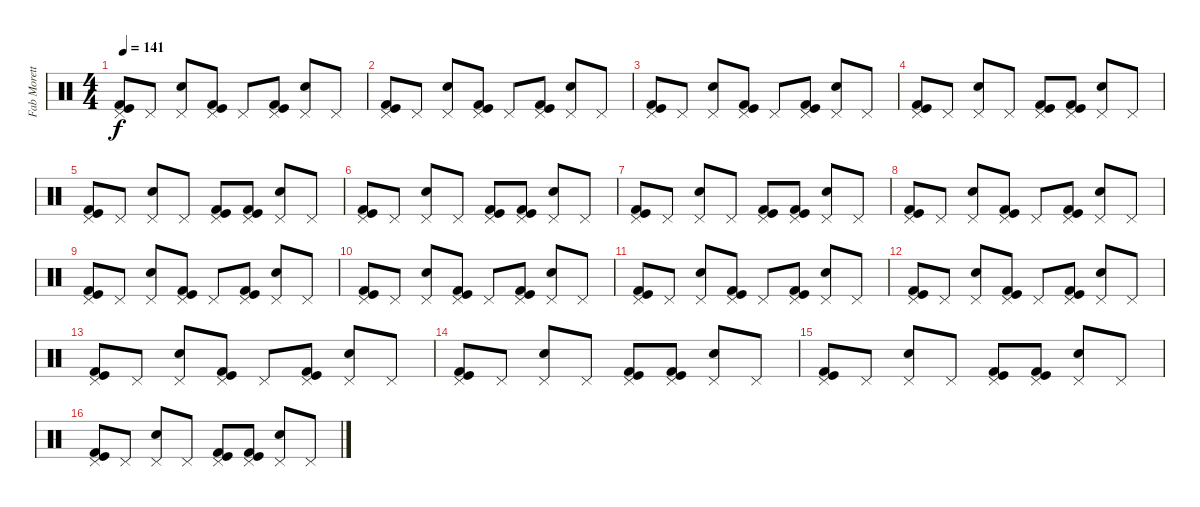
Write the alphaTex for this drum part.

\track ("Fab Moretti - Drums" "Fab Morett") {instrument percussion}
\staff {score}
\articulation defaults
\ts (4 4)
\tempo 141
\clef neutral
\ks c
("Pedal Hi-Hat (hit)" "Kick (hit) 2" "Kick (hit)").8{dy f} "Pedal Hi-Hat (hit)".8 ("Pedal Hi-Hat (hit)" "Snare (hit) 2").8 ("Pedal Hi-Hat (hit)" "Kick (hit) 2" "Kick (hit)").8 "Pedal Hi-Hat (hit)".8 ("Pedal Hi-Hat (hit)" "Kick (hit) 2" "Kick (hit)").8 ("Pedal Hi-Hat (hit)" "Snare (hit) 2").8 "Pedal Hi-Hat (hit)".8 |
("Pedal Hi-Hat (hit)" "Kick (hit) 2" "Kick (hit)").8 "Pedal Hi-Hat (hit)".8 ("Pedal Hi-Hat (hit)" "Snare (hit) 2").8 ("Pedal Hi-Hat (hit)" "Kick (hit) 2" "Kick (hit)").8 "Pedal Hi-Hat (hit)".8 ("Pedal Hi-Hat (hit)" "Kick (hit) 2" "Kick (hit)").8 ("Pedal Hi-Hat (hit)" "Snare (hit) 2").8 "Pedal Hi-Hat (hit)".8 |
("Pedal Hi-Hat (hit)" "Kick (hit) 2" "Kick (hit)").8 "Pedal Hi-Hat (hit)".8 ("Pedal Hi-Hat (hit)" "Snare (hit) 2").8 ("Pedal Hi-Hat (hit)" "Kick (hit) 2" "Kick (hit)").8 "Pedal Hi-Hat (hit)".8 ("Pedal Hi-Hat (hit)" "Kick (hit) 2" "Kick (hit)").8 ("Pedal Hi-Hat (hit)" "Snare (hit) 2").8 "Pedal Hi-Hat (hit)".8 |
("Pedal Hi-Hat (hit)" "Kick (hit) 2" "Kick (hit)").8 "Pedal Hi-Hat (hit)".8 ("Pedal Hi-Hat (hit)" "Snare (hit) 2").8 "Pedal Hi-Hat (hit)".8 ("Pedal Hi-Hat (hit)" "Kick (hit) 2" "Kick (hit)").8 ("Pedal Hi-Hat (hit)" "Kick (hit) 2" "Kick (hit)").8 ("Pedal Hi-Hat (hit)" "Snare (hit) 2").8 "Pedal Hi-Hat (hit)".8 |
("Pedal Hi-Hat (hit)" "Kick (hit) 2" "Kick (hit)").8 "Pedal Hi-Hat (hit)".8 ("Pedal Hi-Hat (hit)" "Snare (hit) 2").8 "Pedal Hi-Hat (hit)".8 ("Pedal Hi-Hat (hit)" "Kick (hit) 2" "Kick (hit)").8 ("Pedal Hi-Hat (hit)" "Kick (hit) 2" "Kick (hit)").8 ("Pedal Hi-Hat (hit)" "Snare (hit) 2").8 "Pedal Hi-Hat (hit)".8 |
("Pedal Hi-Hat (hit)" "Kick (hit) 2" "Kick (hit)").8 "Pedal Hi-Hat (hit)".8 ("Pedal Hi-Hat (hit)" "Snare (hit) 2").8 "Pedal Hi-Hat (hit)".8 ("Pedal Hi-Hat (hit)" "Kick (hit) 2" "Kick (hit)").8 ("Pedal Hi-Hat (hit)" "Kick (hit) 2" "Kick (hit)").8 ("Pedal Hi-Hat (hit)" "Snare (hit) 2").8 "Pedal Hi-Hat (hit)".8 |
("Pedal Hi-Hat (hit)" "Kick (hit) 2" "Kick (hit)").8 "Pedal Hi-Hat (hit)".8 ("Pedal Hi-Hat (hit)" "Snare (hit) 2").8 "Pedal Hi-Hat (hit)".8 ("Pedal Hi-Hat (hit)" "Kick (hit) 2" "Kick (hit)").8 ("Pedal Hi-Hat (hit)" "Kick (hit) 2" "Kick (hit)").8 ("Pedal Hi-Hat (hit)" "Snare (hit) 2").8 "Pedal Hi-Hat (hit)".8 |
("Pedal Hi-Hat (hit)" "Kick (hit) 2" "Kick (hit)").8 "Pedal Hi-Hat (hit)".8 ("Pedal Hi-Hat (hit)" "Snare (hit) 2").8 ("Pedal Hi-Hat (hit)" "Kick (hit) 2" "Kick (hit)").8 "Pedal Hi-Hat (hit)".8 ("Pedal Hi-Hat (hit)" "Kick (hit) 2" "Kick (hit)").8 ("Pedal Hi-Hat (hit)" "Snare (hit) 2").8 "Pedal Hi-Hat (hit)".8 |
("Pedal Hi-Hat (hit)" "Kick (hit) 2" "Kick (hit)").8 "Pedal Hi-Hat (hit)".8 ("Pedal Hi-Hat (hit)" "Snare (hit) 2").8 ("Pedal Hi-Hat (hit)" "Kick (hit) 2" "Kick (hit)").8 "Pedal Hi-Hat (hit)".8 ("Pedal Hi-Hat (hit)" "Kick (hit) 2" "Kick (hit)").8 ("Pedal Hi-Hat (hit)" "Snare (hit) 2").8 "Pedal Hi-Hat (hit)".8 |
("Pedal Hi-Hat (hit)" "Kick (hit) 2" "Kick (hit)").8 "Pedal Hi-Hat (hit)".8 ("Pedal Hi-Hat (hit)" "Snare (hit) 2").8 ("Pedal Hi-Hat (hit)" "Kick (hit) 2" "Kick (hit)").8 "Pedal Hi-Hat (hit)".8 ("Pedal Hi-Hat (hit)" "Kick (hit) 2" "Kick (hit)").8 ("Pedal Hi-Hat (hit)" "Snare (hit) 2").8 "Pedal Hi-Hat (hit)".8 |
("Pedal Hi-Hat (hit)" "Kick (hit) 2" "Kick (hit)").8 "Pedal Hi-Hat (hit)".8 ("Pedal Hi-Hat (hit)" "Snare (hit) 2").8 ("Pedal Hi-Hat (hit)" "Kick (hit) 2" "Kick (hit)").8 "Pedal Hi-Hat (hit)".8 ("Pedal Hi-Hat (hit)" "Kick (hit) 2" "Kick (hit)").8 ("Pedal Hi-Hat (hit)" "Snare (hit) 2").8 "Pedal Hi-Hat (hit)".8 |
("Pedal Hi-Hat (hit)" "Kick (hit) 2" "Kick (hit)").8 "Pedal Hi-Hat (hit)".8 ("Pedal Hi-Hat (hit)" "Snare (hit) 2").8 ("Pedal Hi-Hat (hit)" "Kick (hit) 2" "Kick (hit)").8 "Pedal Hi-Hat (hit)".8 ("Pedal Hi-Hat (hit)" "Kick (hit) 2" "Kick (hit)").8 ("Pedal Hi-Hat (hit)" "Snare (hit) 2").8 "Pedal Hi-Hat (hit)".8 |
("Pedal Hi-Hat (hit)" "Kick (hit) 2" "Kick (hit)").8 "Pedal Hi-Hat (hit)".8 ("Pedal Hi-Hat (hit)" "Snare (hit) 2").8 ("Pedal Hi-Hat (hit)" "Kick (hit) 2" "Kick (hit)").8 "Pedal Hi-Hat (hit)".8 ("Pedal Hi-Hat (hit)" "Kick (hit) 2" "Kick (hit)").8 ("Pedal Hi-Hat (hit)" "Snare (hit) 2").8 "Pedal Hi-Hat (hit)".8 |
("Pedal Hi-Hat (hit)" "Kick (hit) 2" "Kick (hit)").8 "Pedal Hi-Hat (hit)".8 ("Pedal Hi-Hat (hit)" "Snare (hit) 2").8 "Pedal Hi-Hat (hit)".8 ("Pedal Hi-Hat (hit)" "Kick (hit) 2" "Kick (hit)").8 ("Pedal Hi-Hat (hit)" "Kick (hit) 2" "Kick (hit)").8 ("Pedal Hi-Hat (hit)" "Snare (hit) 2").8 "Pedal Hi-Hat (hit)".8 |
("Pedal Hi-Hat (hit)" "Kick (hit) 2" "Kick (hit)").8 "Pedal Hi-Hat (hit)".8 ("Pedal Hi-Hat (hit)" "Snare (hit) 2").8 "Pedal Hi-Hat (hit)".8 ("Pedal Hi-Hat (hit)" "Kick (hit) 2" "Kick (hit)").8 ("Pedal Hi-Hat (hit)" "Kick (hit) 2" "Kick (hit)").8 ("Pedal Hi-Hat (hit)" "Snare (hit) 2").8 "Pedal Hi-Hat (hit)".8 |
("Pedal Hi-Hat (hit)" "Kick (hit) 2" "Kick (hit)").8 "Pedal Hi-Hat (hit)".8 ("Pedal Hi-Hat (hit)" "Snare (hit) 2").8 "Pedal Hi-Hat (hit)".8 ("Pedal Hi-Hat (hit)" "Kick (hit) 2" "Kick (hit)").8 ("Pedal Hi-Hat (hit)" "Kick (hit) 2" "Kick (hit)").8 ("Pedal Hi-Hat (hit)" "Snare (hit) 2").8 "Pedal Hi-Hat (hit)".8
